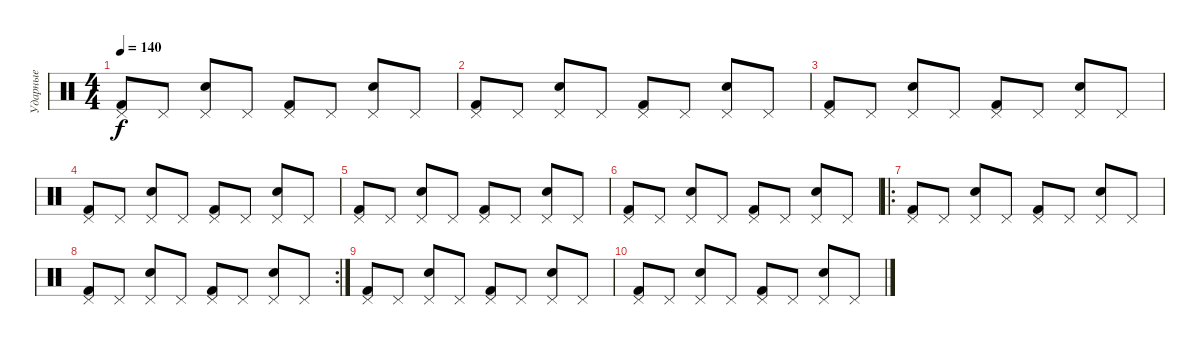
\track ("Ударные" "Ударные") {instrument percussion}
\staff {score}
\articulation defaults
\ts (4 4)
\tempo 140
\clef neutral
\ks c
("Kick (hit) 2" "Pedal Hi-Hat (hit)").8{dy f} "Pedal Hi-Hat (hit)".8 ("Snare (hit) 2" "Pedal Hi-Hat (hit)").8 "Pedal Hi-Hat (hit)".8 ("Kick (hit) 2" "Pedal Hi-Hat (hit)").8 "Pedal Hi-Hat (hit)".8 ("Snare (hit) 2" "Pedal Hi-Hat (hit)").8 "Pedal Hi-Hat (hit)".8 |
("Kick (hit) 2" "Pedal Hi-Hat (hit)").8 "Pedal Hi-Hat (hit)".8 ("Snare (hit) 2" "Pedal Hi-Hat (hit)").8 "Pedal Hi-Hat (hit)".8 ("Kick (hit) 2" "Pedal Hi-Hat (hit)").8 "Pedal Hi-Hat (hit)".8 ("Snare (hit) 2" "Pedal Hi-Hat (hit)").8 "Pedal Hi-Hat (hit)".8 |
("Kick (hit) 2" "Pedal Hi-Hat (hit)").8 "Pedal Hi-Hat (hit)".8 ("Snare (hit) 2" "Pedal Hi-Hat (hit)").8 "Pedal Hi-Hat (hit)".8 ("Kick (hit) 2" "Pedal Hi-Hat (hit)").8 "Pedal Hi-Hat (hit)".8 ("Snare (hit) 2" "Pedal Hi-Hat (hit)").8 "Pedal Hi-Hat (hit)".8 |
("Kick (hit) 2" "Pedal Hi-Hat (hit)").8 "Pedal Hi-Hat (hit)".8 ("Snare (hit) 2" "Pedal Hi-Hat (hit)").8 "Pedal Hi-Hat (hit)".8 ("Kick (hit) 2" "Pedal Hi-Hat (hit)").8 "Pedal Hi-Hat (hit)".8 ("Snare (hit) 2" "Pedal Hi-Hat (hit)").8 "Pedal Hi-Hat (hit)".8 |
("Kick (hit) 2" "Pedal Hi-Hat (hit)").8 "Pedal Hi-Hat (hit)".8 ("Snare (hit) 2" "Pedal Hi-Hat (hit)").8 "Pedal Hi-Hat (hit)".8 ("Kick (hit) 2" "Pedal Hi-Hat (hit)").8 "Pedal Hi-Hat (hit)".8 ("Snare (hit) 2" "Pedal Hi-Hat (hit)").8 "Pedal Hi-Hat (hit)".8 |
("Kick (hit) 2" "Pedal Hi-Hat (hit)").8 "Pedal Hi-Hat (hit)".8 ("Snare (hit) 2" "Pedal Hi-Hat (hit)").8 "Pedal Hi-Hat (hit)".8 ("Kick (hit) 2" "Pedal Hi-Hat (hit)").8 "Pedal Hi-Hat (hit)".8 ("Snare (hit) 2" "Pedal Hi-Hat (hit)").8 "Pedal Hi-Hat (hit)".8 |
\ro
("Kick (hit) 2" "Pedal Hi-Hat (hit)").8 "Pedal Hi-Hat (hit)".8 ("Snare (hit) 2" "Pedal Hi-Hat (hit)").8 "Pedal Hi-Hat (hit)".8 ("Kick (hit) 2" "Pedal Hi-Hat (hit)").8 "Pedal Hi-Hat (hit)".8 ("Snare (hit) 2" "Pedal Hi-Hat (hit)").8 "Pedal Hi-Hat (hit)".8 |
\rc 2
("Kick (hit) 2" "Pedal Hi-Hat (hit)").8 "Pedal Hi-Hat (hit)".8 ("Snare (hit) 2" "Pedal Hi-Hat (hit)").8 "Pedal Hi-Hat (hit)".8 ("Kick (hit) 2" "Pedal Hi-Hat (hit)").8 "Pedal Hi-Hat (hit)".8 ("Snare (hit) 2" "Pedal Hi-Hat (hit)").8 "Pedal Hi-Hat (hit)".8 |
("Kick (hit) 2" "Pedal Hi-Hat (hit)").8 "Pedal Hi-Hat (hit)".8 ("Snare (hit) 2" "Pedal Hi-Hat (hit)").8 "Pedal Hi-Hat (hit)".8 ("Kick (hit) 2" "Pedal Hi-Hat (hit)").8 "Pedal Hi-Hat (hit)".8 ("Snare (hit) 2" "Pedal Hi-Hat (hit)").8 "Pedal Hi-Hat (hit)".8 |
("Kick (hit) 2" "Pedal Hi-Hat (hit)").8 "Pedal Hi-Hat (hit)".8 ("Snare (hit) 2" "Pedal Hi-Hat (hit)").8 "Pedal Hi-Hat (hit)".8 ("Kick (hit) 2" "Pedal Hi-Hat (hit)").8 "Pedal Hi-Hat (hit)".8 ("Snare (hit) 2" "Pedal Hi-Hat (hit)").8 "Pedal Hi-Hat (hit)".8
